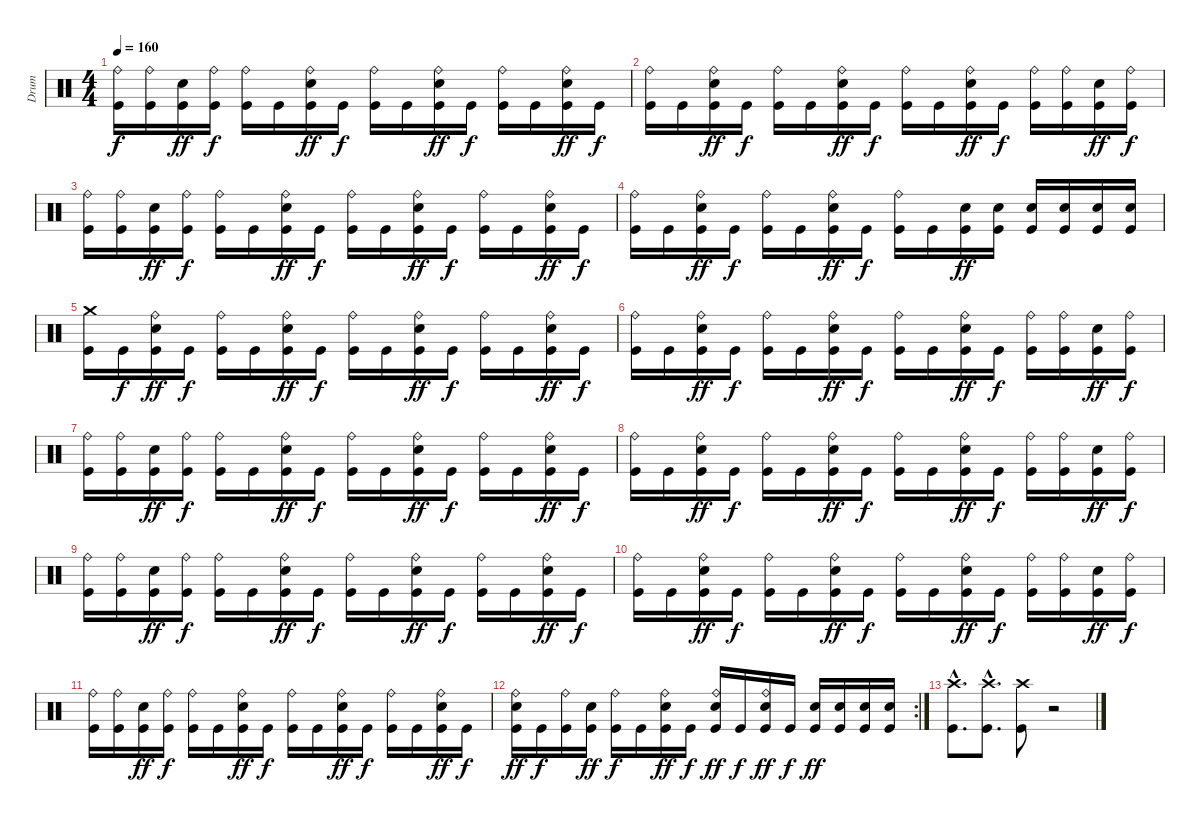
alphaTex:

\track ("Drum" "Drum") {instrument percussion}
\staff {score}
\articulation defaults
\ts (4 4)
\tempo 160
\clef neutral
\ks c
("Kick (hit)" "Ride (bell)").16{dy f} ("Kick (hit)" "Ride (bell)").16 ("Kick (hit)" "Electric Snare (hit)").16{dy ff} ("Kick (hit)" "Ride (bell)").16{dy f} ("Kick (hit)" "Ride (bell)").16 "Kick (hit)".16 ("Kick (hit)" "Electric Snare (hit)" "Ride (bell)").16{dy ff} "Kick (hit)".16{dy f} ("Kick (hit)" "Ride (bell)").16 "Kick (hit)".16 ("Kick (hit)" "Electric Snare (hit)" "Ride (bell)").16{dy ff} "Kick (hit)".16{dy f} ("Kick (hit)" "Ride (bell)").16 "Kick (hit)".16 ("Kick (hit)" "Electric Snare (hit)" "Ride (bell)").16{dy ff} "Kick (hit)".16{dy f} |
("Kick (hit)" "Ride (bell)").16 "Kick (hit)".16 ("Kick (hit)" "Electric Snare (hit)" "Ride (bell)").16{dy ff} "Kick (hit)".16{dy f} ("Kick (hit)" "Ride (bell)").16 "Kick (hit)".16 ("Kick (hit)" "Electric Snare (hit)" "Ride (bell)").16{dy ff} "Kick (hit)".16{dy f} ("Kick (hit)" "Ride (bell)").16 "Kick (hit)".16 ("Kick (hit)" "Electric Snare (hit)" "Ride (bell)").16{dy ff} "Kick (hit)".16{dy f} ("Kick (hit)" "Ride (bell)").16 ("Kick (hit)" "Ride (bell)").16 ("Kick (hit)" "Electric Snare (hit)").16{dy ff} ("Kick (hit)" "Ride (bell)").16{dy f} |
("Kick (hit)" "Ride (bell)").16 ("Kick (hit)" "Ride (bell)").16 ("Kick (hit)" "Electric Snare (hit)").16{dy ff} ("Kick (hit)" "Ride (bell)").16{dy f} ("Kick (hit)" "Ride (bell)").16 "Kick (hit)".16 ("Kick (hit)" "Electric Snare (hit)" "Ride (bell)").16{dy ff} "Kick (hit)".16{dy f} ("Kick (hit)" "Ride (bell)").16 "Kick (hit)".16 ("Kick (hit)" "Electric Snare (hit)" "Ride (bell)").16{dy ff} "Kick (hit)".16{dy f} ("Kick (hit)" "Ride (bell)").16 "Kick (hit)".16 ("Kick (hit)" "Electric Snare (hit)" "Ride (bell)").16{dy ff} "Kick (hit)".16{dy f} |
("Kick (hit)" "Ride (bell)").16 "Kick (hit)".16 ("Kick (hit)" "Electric Snare (hit)" "Ride (bell)").16{dy ff} "Kick (hit)".16{dy f} ("Kick (hit)" "Ride (bell)").16 "Kick (hit)".16 ("Kick (hit)" "Electric Snare (hit)" "Ride (bell)").16{dy ff} "Kick (hit)".16{dy f} ("Kick (hit)" "Ride (bell)").16 "Kick (hit)".16 ("Kick (hit)" "Electric Snare (hit)").16{dy ff} ("Kick (hit)" "Electric Snare (hit)").16 ("Kick (hit)" "Electric Snare (hit)").16 ("Kick (hit)" "Electric Snare (hit)").16 ("Kick (hit)" "Electric Snare (hit)").16 ("Kick (hit)" "Electric Snare (hit)").16 |
("Kick (hit)" "Crash medium (hit)").16 "Kick (hit)".16{dy f} ("Kick (hit)" "Electric Snare (hit)" "Ride (bell)").16{dy ff} "Kick (hit)".16{dy f} ("Kick (hit)" "Ride (bell)").16 "Kick (hit)".16 ("Kick (hit)" "Electric Snare (hit)" "Ride (bell)").16{dy ff} "Kick (hit)".16{dy f} ("Kick (hit)" "Ride (bell)").16 "Kick (hit)".16 ("Kick (hit)" "Electric Snare (hit)" "Ride (bell)").16{dy ff} "Kick (hit)".16{dy f} ("Kick (hit)" "Ride (bell)").16 "Kick (hit)".16 ("Kick (hit)" "Electric Snare (hit)" "Ride (bell)").16{dy ff} "Kick (hit)".16{dy f} |
("Kick (hit)" "Ride (bell)").16 "Kick (hit)".16 ("Kick (hit)" "Electric Snare (hit)" "Ride (bell)").16{dy ff} "Kick (hit)".16{dy f} ("Kick (hit)" "Ride (bell)").16 "Kick (hit)".16 ("Kick (hit)" "Electric Snare (hit)" "Ride (bell)").16{dy ff} "Kick (hit)".16{dy f} ("Kick (hit)" "Ride (bell)").16 "Kick (hit)".16 ("Kick (hit)" "Electric Snare (hit)" "Ride (bell)").16{dy ff} "Kick (hit)".16{dy f} ("Kick (hit)" "Ride (bell)").16 ("Kick (hit)" "Ride (bell)").16 ("Kick (hit)" "Electric Snare (hit)").16{dy ff} ("Kick (hit)" "Ride (bell)").16{dy f} |
("Kick (hit)" "Ride (bell)").16 ("Kick (hit)" "Ride (bell)").16 ("Kick (hit)" "Electric Snare (hit)").16{dy ff} ("Kick (hit)" "Ride (bell)").16{dy f} ("Kick (hit)" "Ride (bell)").16 "Kick (hit)".16 ("Kick (hit)" "Electric Snare (hit)" "Ride (bell)").16{dy ff} "Kick (hit)".16{dy f} ("Kick (hit)" "Ride (bell)").16 "Kick (hit)".16 ("Kick (hit)" "Electric Snare (hit)" "Ride (bell)").16{dy ff} "Kick (hit)".16{dy f} ("Kick (hit)" "Ride (bell)").16 "Kick (hit)".16 ("Kick (hit)" "Electric Snare (hit)" "Ride (bell)").16{dy ff} "Kick (hit)".16{dy f} |
("Kick (hit)" "Ride (bell)").16 "Kick (hit)".16 ("Kick (hit)" "Electric Snare (hit)" "Ride (bell)").16{dy ff} "Kick (hit)".16{dy f} ("Kick (hit)" "Ride (bell)").16 "Kick (hit)".16 ("Kick (hit)" "Electric Snare (hit)" "Ride (bell)").16{dy ff} "Kick (hit)".16{dy f} ("Kick (hit)" "Ride (bell)").16 "Kick (hit)".16 ("Kick (hit)" "Electric Snare (hit)" "Ride (bell)").16{dy ff} "Kick (hit)".16{dy f} ("Kick (hit)" "Ride (bell)").16 ("Kick (hit)" "Ride (bell)").16 ("Kick (hit)" "Electric Snare (hit)").16{dy ff} ("Kick (hit)" "Ride (bell)").16{dy f} |
("Kick (hit)" "Ride (bell)").16 ("Kick (hit)" "Ride (bell)").16 ("Kick (hit)" "Electric Snare (hit)").16{dy ff} ("Kick (hit)" "Ride (bell)").16{dy f} ("Kick (hit)" "Ride (bell)").16 "Kick (hit)".16 ("Kick (hit)" "Electric Snare (hit)" "Ride (bell)").16{dy ff} "Kick (hit)".16{dy f} ("Kick (hit)" "Ride (bell)").16 "Kick (hit)".16 ("Kick (hit)" "Electric Snare (hit)" "Ride (bell)").16{dy ff} "Kick (hit)".16{dy f} ("Kick (hit)" "Ride (bell)").16 "Kick (hit)".16 ("Kick (hit)" "Electric Snare (hit)" "Ride (bell)").16{dy ff} "Kick (hit)".16{dy f} |
("Kick (hit)" "Ride (bell)").16 "Kick (hit)".16 ("Kick (hit)" "Electric Snare (hit)" "Ride (bell)").16{dy ff} "Kick (hit)".16{dy f} ("Kick (hit)" "Ride (bell)").16 "Kick (hit)".16 ("Kick (hit)" "Electric Snare (hit)" "Ride (bell)").16{dy ff} "Kick (hit)".16{dy f} ("Kick (hit)" "Ride (bell)").16 "Kick (hit)".16 ("Kick (hit)" "Electric Snare (hit)" "Ride (bell)").16{dy ff} "Kick (hit)".16{dy f} ("Kick (hit)" "Ride (bell)").16 ("Kick (hit)" "Ride (bell)").16 ("Kick (hit)" "Electric Snare (hit)").16{dy ff} ("Kick (hit)" "Ride (bell)").16{dy f} |
("Kick (hit)" "Ride (bell)").16 ("Kick (hit)" "Ride (bell)").16 ("Kick (hit)" "Electric Snare (hit)").16{dy ff} ("Kick (hit)" "Ride (bell)").16{dy f} ("Kick (hit)" "Ride (bell)").16 "Kick (hit)".16 ("Kick (hit)" "Electric Snare (hit)" "Ride (bell)").16{dy ff} "Kick (hit)".16{dy f} ("Kick (hit)" "Ride (bell)").16 "Kick (hit)".16 ("Kick (hit)" "Electric Snare (hit)" "Ride (bell)").16{dy ff} "Kick (hit)".16{dy f} ("Kick (hit)" "Ride (bell)").16 "Kick (hit)".16 ("Kick (hit)" "Electric Snare (hit)" "Ride (bell)").16{dy ff} "Kick (hit)".16{dy f} |
\rc 2
("Kick (hit)" "Electric Snare (hit)" "Ride (bell)").16{dy ff} "Kick (hit)".16{dy f} ("Kick (hit)" "Ride (bell)").16 ("Kick (hit)" "Electric Snare (hit)").16{dy ff} ("Kick (hit)" "Ride (bell)").16{dy f} "Kick (hit)".16 ("Kick (hit)" "Electric Snare (hit)" "Ride (bell)").16{dy ff} "Kick (hit)".16{dy f} ("Kick (hit)" "Electric Snare (hit)" "Ride (bell)").16{dy ff} "Kick (hit)".16{dy f} ("Kick (hit)" "Electric Snare (hit)" "Ride (bell)").16{dy ff} "Kick (hit)".16{dy f} ("Kick (hit)" "Electric Snare (hit)").16{dy ff} ("Kick (hit)" "Electric Snare (hit)").16 ("Kick (hit)" "Electric Snare (hit)").16 ("Kick (hit)" "Electric Snare (hit)").16 |
("Kick (hit)"{hac} "Crash high (hit)"{hac}).8{d} ("Kick (hit)"{hac} "Crash high (hit)"{hac}).8{d} ("Kick (hit)" "Crash high (hit)").8 r.2
